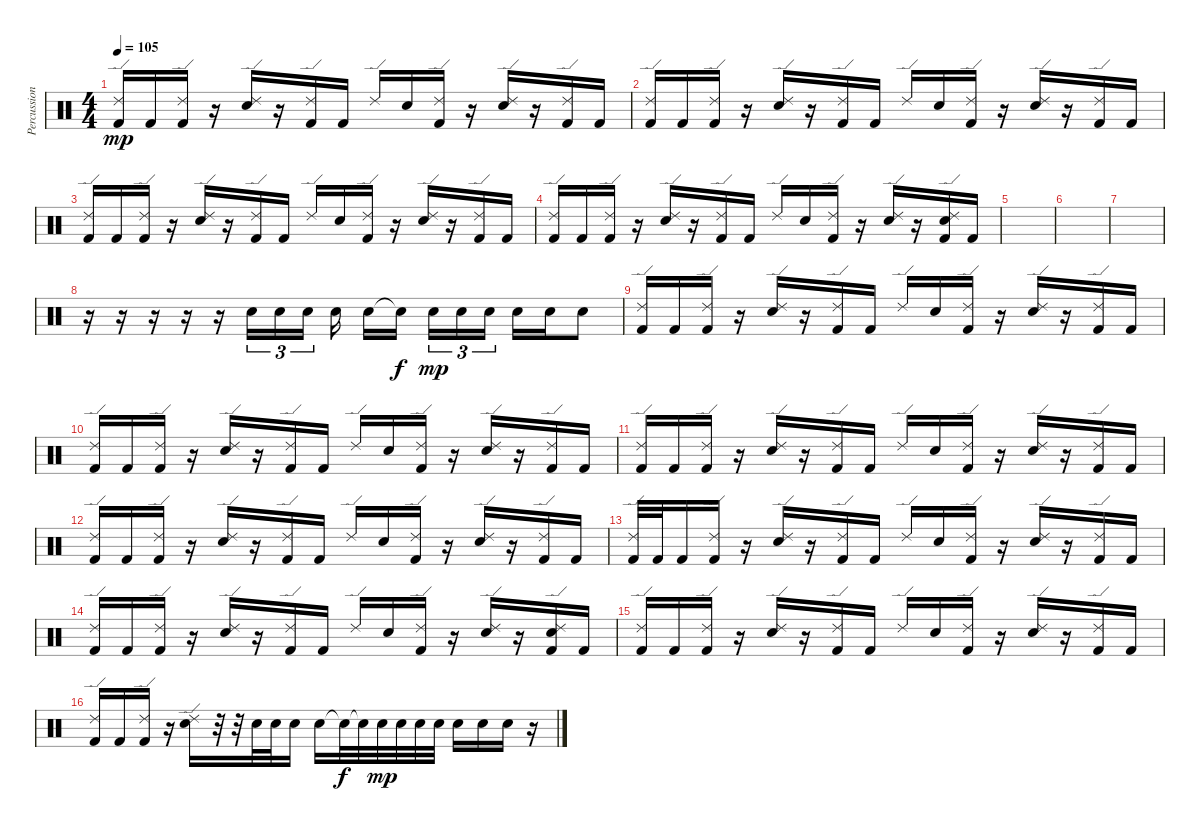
\track ("Percussioni" "Percussion") {instrument percussion}
\staff {score}
\articulation defaults
\ts (4 4)
\tempo 105
\clef neutral
\ks c
("Ride (edge) 2" "Kick (hit) 2").16{dy mp} "Kick (hit) 2".16 ("Ride (edge) 2" "Kick (hit) 2").16 r.16 ("Ride (edge) 2" "Electric Snare (hit)").16 r.16 ("Ride (edge) 2" "Kick (hit) 2").16 "Kick (hit) 2".16 "Ride (edge) 2".16 "Electric Snare (hit)".16 ("Ride (edge) 2" "Kick (hit) 2").16 r.16 ("Ride (edge) 2" "Electric Snare (hit)").16 r.16 ("Ride (edge) 2" "Kick (hit) 2").16 "Kick (hit) 2".16 |
("Ride (edge) 2" "Kick (hit) 2").16 "Kick (hit) 2".16 ("Ride (edge) 2" "Kick (hit) 2").16 r.16 ("Ride (edge) 2" "Electric Snare (hit)").16 r.16 ("Ride (edge) 2" "Kick (hit) 2").16 "Kick (hit) 2".16 "Ride (edge) 2".16 "Electric Snare (hit)".16 ("Ride (edge) 2" "Kick (hit) 2").16 r.16 ("Ride (edge) 2" "Electric Snare (hit)").16 r.16 ("Ride (edge) 2" "Kick (hit) 2").16 "Kick (hit) 2".16 |
("Ride (edge) 2" "Kick (hit) 2").16 "Kick (hit) 2".16 ("Ride (edge) 2" "Kick (hit) 2").16 r.16 ("Ride (edge) 2" "Electric Snare (hit)").16 r.16 ("Ride (edge) 2" "Kick (hit) 2").16 "Kick (hit) 2".16 "Ride (edge) 2".16 "Electric Snare (hit)".16 ("Ride (edge) 2" "Kick (hit) 2").16 r.16 ("Ride (edge) 2" "Electric Snare (hit)").16 r.16 ("Ride (edge) 2" "Kick (hit) 2").16 "Kick (hit) 2".16 |
("Ride (edge) 2" "Kick (hit) 2").16 "Kick (hit) 2".16 ("Ride (edge) 2" "Kick (hit) 2").16 r.16 ("Ride (edge) 2" "Electric Snare (hit)").16 r.16 ("Ride (edge) 2" "Kick (hit) 2").16 "Kick (hit) 2".16 "Ride (edge) 2".16 "Electric Snare (hit)".16 ("Ride (edge) 2" "Kick (hit) 2").16 r.16 ("Ride (edge) 2" "Electric Snare (hit)").16 r.16 ("Ride (edge) 2" "Electric Snare (hit)" "Kick (hit) 2").16 "Kick (hit) 2".16 |
|
|
|
r.16 r.16 r.16 r.16 r.16 "Electric Snare (hit)".16{tu (3 2)} "Electric Snare (hit)".16{tu (3 2)} "Electric Snare (hit)".16{tu (3 2) beam splitsecondary} "Electric Snare (hit)".16 "Electric Snare (hit)".16 "Electric Snare (hit)"{t}.16{dy f beam splitsecondary} "Electric Snare (hit)".16{tu (3 2) dy mp} "Electric Snare (hit)".16{tu (3 2)} "Electric Snare (hit)".16{tu (3 2)} "Electric Snare (hit)".16 "Electric Snare (hit)".16 "Electric Snare (hit)".8 |
("Ride (edge) 2" "Kick (hit) 2").16 "Kick (hit) 2".16 ("Ride (edge) 2" "Kick (hit) 2").16 r.16 ("Ride (edge) 2" "Electric Snare (hit)").16 r.16 ("Ride (edge) 2" "Kick (hit) 2").16 "Kick (hit) 2".16 "Ride (edge) 2".16 "Electric Snare (hit)".16 ("Ride (edge) 2" "Kick (hit) 2").16 r.16 ("Ride (edge) 2" "Electric Snare (hit)").16 r.16 ("Ride (edge) 2" "Kick (hit) 2").16 "Kick (hit) 2".16 |
("Ride (edge) 2" "Kick (hit) 2").16 "Kick (hit) 2".16 ("Ride (edge) 2" "Kick (hit) 2").16 r.16 ("Ride (edge) 2" "Electric Snare (hit)").16 r.16 ("Ride (edge) 2" "Kick (hit) 2").16 "Kick (hit) 2".16 "Ride (edge) 2".16 "Electric Snare (hit)".16 ("Ride (edge) 2" "Kick (hit) 2").16 r.16 ("Ride (edge) 2" "Electric Snare (hit)").16 r.16 ("Ride (edge) 2" "Kick (hit) 2").16 "Kick (hit) 2".16 |
("Ride (edge) 2" "Kick (hit) 2").16 "Kick (hit) 2".16 ("Ride (edge) 2" "Kick (hit) 2").16 r.16 ("Ride (edge) 2" "Electric Snare (hit)").16 r.16 ("Ride (edge) 2" "Kick (hit) 2").16 "Kick (hit) 2".16 "Ride (edge) 2".16 "Electric Snare (hit)".16 ("Ride (edge) 2" "Kick (hit) 2").16 r.16 ("Ride (edge) 2" "Electric Snare (hit)").16 r.16 ("Ride (edge) 2" "Kick (hit) 2").16 "Kick (hit) 2".16 |
("Ride (edge) 2" "Kick (hit) 2").16 "Kick (hit) 2".16 ("Ride (edge) 2" "Kick (hit) 2").16 r.16 ("Ride (edge) 2" "Electric Snare (hit)").16 r.16 ("Ride (edge) 2" "Kick (hit) 2").16 "Kick (hit) 2".16 "Ride (edge) 2".16 "Electric Snare (hit)".16 ("Ride (edge) 2" "Kick (hit) 2").16 r.16 ("Ride (edge) 2" "Electric Snare (hit)").16 r.16 ("Ride (edge) 2" "Kick (hit) 2").16 "Kick (hit) 2".16 |
("Ride (edge) 2" "Kick (hit) 2").32 "Kick (hit) 2".32 "Kick (hit) 2".16 ("Ride (edge) 2" "Kick (hit) 2").16 r.16 ("Ride (edge) 2" "Electric Snare (hit)").16 r.16 ("Ride (edge) 2" "Kick (hit) 2").16 "Kick (hit) 2".16 "Ride (edge) 2".16 "Electric Snare (hit)".16 ("Ride (edge) 2" "Kick (hit) 2").16 r.16 ("Ride (edge) 2" "Electric Snare (hit)").16 r.16 ("Ride (edge) 2" "Kick (hit) 2").16 "Kick (hit) 2".16 |
("Ride (edge) 2" "Kick (hit) 2").16 "Kick (hit) 2".16 ("Ride (edge) 2" "Kick (hit) 2").16 r.16 ("Ride (edge) 2" "Electric Snare (hit)").16 r.16 ("Ride (edge) 2" "Kick (hit) 2").16 "Kick (hit) 2".16 "Ride (edge) 2".16 "Electric Snare (hit)".16 ("Ride (edge) 2" "Kick (hit) 2").16 r.16 ("Ride (edge) 2" "Electric Snare (hit)").16 r.16 ("Ride (edge) 2" "Electric Snare (hit)" "Kick (hit) 2").16 "Kick (hit) 2".16 |
("Ride (edge) 2" "Kick (hit) 2").16 "Kick (hit) 2".16 ("Ride (edge) 2" "Kick (hit) 2").16 r.16 ("Ride (edge) 2" "Electric Snare (hit)").16 r.16 ("Ride (edge) 2" "Kick (hit) 2").16 "Kick (hit) 2".16 "Ride (edge) 2".16 "Electric Snare (hit)".16 ("Ride (edge) 2" "Kick (hit) 2").16 r.16 ("Ride (edge) 2" "Electric Snare (hit)").16 r.16 ("Ride (edge) 2" "Kick (hit) 2").16 "Kick (hit) 2".16 |
("Ride (edge) 2" "Kick (hit) 2").16 "Kick (hit) 2".16 ("Ride (edge) 2" "Kick (hit) 2").16 r.16 ("Ride (edge) 2" "Electric Snare (hit)").16 r.32 r.32 "Electric Snare (hit)".32 "Electric Snare (hit)".32 "Electric Snare (hit)".16 "Electric Snare (hit)".16 "Snare (hit)"{t}.32{dy f} "Snare (hit)"{t}.32 "Electric Snare (hit)".32{dy mp} "Electric Snare (hit)".32 "Electric Snare (hit)".32 "Electric Snare (hit)".32 "Electric Snare (hit)".16 "Electric Snare (hit)".16 "Electric Snare (hit)".16 r.16
